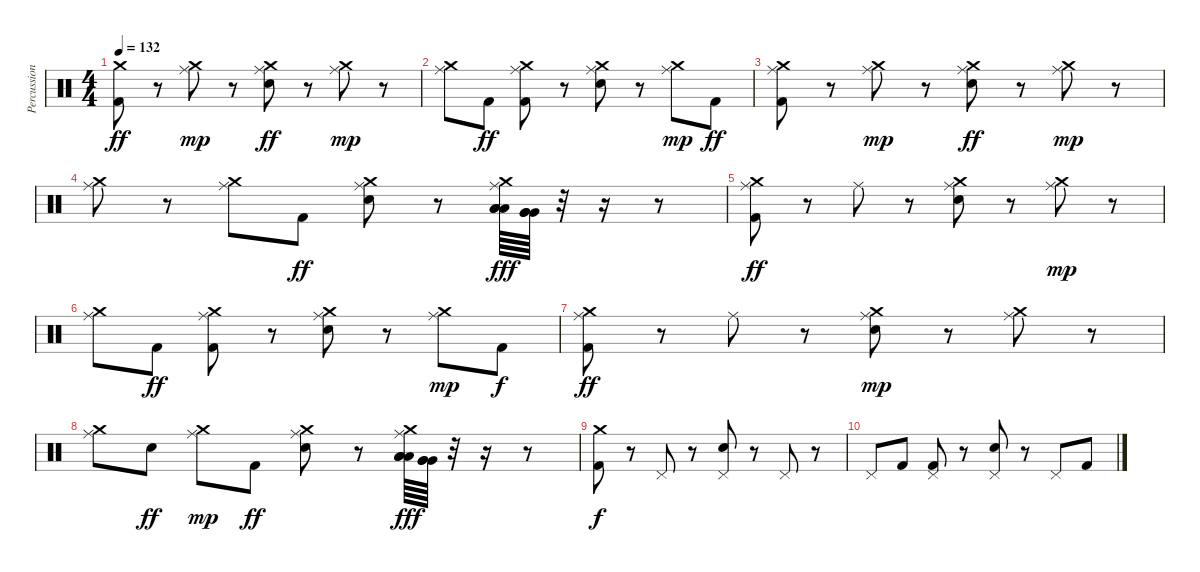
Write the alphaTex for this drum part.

\track ("Percussion" "Percussion") {instrument percussion}
\staff {score}
\articulation defaults
\ts (4 4)
\tempo 132
\clef neutral
\ks c
("Crash medium (hit)" "Kick (hit) 2").8{dy ff} r.8 ("Ride (middle)" "Crash medium (hit)").8{dy mp} r.8 ("Ride (middle)" "Crash medium (hit)" "Electric Snare (hit)").8{dy ff} r.8 ("Ride (middle)" "Crash medium (hit)").8{dy mp} r.8 |
("Ride (middle)" "Crash medium (hit)").8 "Kick (hit) 2".8{dy ff} ("Ride (middle)" "Crash medium (hit)" "Kick (hit) 2").8 r.8 ("Ride (middle)" "Crash medium (hit)" "Electric Snare (hit)").8 r.8 ("Ride (middle)" "Crash medium (hit)").8{dy mp} "Kick (hit) 2".8{dy ff} |
("Ride (middle)" "Crash medium (hit)" "Kick (hit) 2").8 r.8 ("Ride (middle)" "Crash medium (hit)").8{dy mp} r.8 ("Ride (middle)" "Crash medium (hit)" "Electric Snare (hit)").8{dy ff} r.8 ("Ride (middle)" "Crash medium (hit)").8{dy mp} r.8 |
("Ride (middle)" "Crash medium (hit)").8 r.8 ("Ride (middle)" "Crash medium (hit)").8 "Kick (hit) 2".8{dy ff} ("Ride (middle)" "Crash medium (hit)" "Electric Snare (hit)").8 r.8 ("Ride (middle)" "Crash medium (hit)" "Low Tom (hit)" "Low Tom (hit)" "Low Tom (hit)").64{dy fff} ("Very Low Tom (hit)" "Very Low Tom (hit)" "Very Low Tom (hit)").64 r.32 r.16 r.8 |
("Ride (middle)" "Crash medium (hit)" "Kick (hit) 2").8{dy ff} r.8 "Ride (middle)".8 r.8 ("Ride (middle)" "Crash medium (hit)" "Electric Snare (hit)").8 r.8 ("Ride (middle)" "Crash medium (hit)").8{dy mp} r.8 |
("Ride (middle)" "Crash medium (hit)").8 "Kick (hit) 2".8{dy ff} ("Ride (middle)" "Crash medium (hit)" "Kick (hit) 2").8 r.8 ("Ride (middle)" "Crash medium (hit)" "Electric Snare (hit)").8 r.8 ("Ride (middle)" "Crash medium (hit)").8{dy mp} "Kick (hit) 2".8{dy f} |
("Ride (middle)" "Crash medium (hit)" "Kick (hit) 2").8{dy ff} r.8 "Ride (middle)".8 r.8 ("Ride (middle)" "Crash medium (hit)" "Electric Snare (hit)").8{dy mp} r.8 ("Ride (middle)" "Crash medium (hit)").8 r.8 |
("Ride (middle)" "Crash medium (hit)").8 "Electric Snare (hit)".8{dy ff} ("Ride (middle)" "Crash medium (hit)").8{dy mp} "Kick (hit) 2".8{dy ff} ("Ride (middle)" "Crash medium (hit)" "Electric Snare (hit)").8 r.8 ("Ride (middle)" "Crash medium (hit)" "Low Tom (hit)" "Low Tom (hit)" "Low Tom (hit)").64{dy fff} ("Very Low Tom (hit)" "Very Low Tom (hit)" "Very Low Tom (hit)").64 r.32 r.16 r.8 |
("Crash medium (hit)" "Kick (hit) 2").8{dy f} r.8 "Pedal Hi-Hat (hit)".8 r.8 ("Pedal Hi-Hat (hit)" "Electric Snare (hit)").8 r.8 "Pedal Hi-Hat (hit)".8 r.8 |
"Pedal Hi-Hat (hit)".8 "Kick (hit) 2".8 ("Pedal Hi-Hat (hit)" "Kick (hit) 2").8 r.8 ("Pedal Hi-Hat (hit)" "Electric Snare (hit)").8 r.8 "Pedal Hi-Hat (hit)".8 "Kick (hit) 2".8
